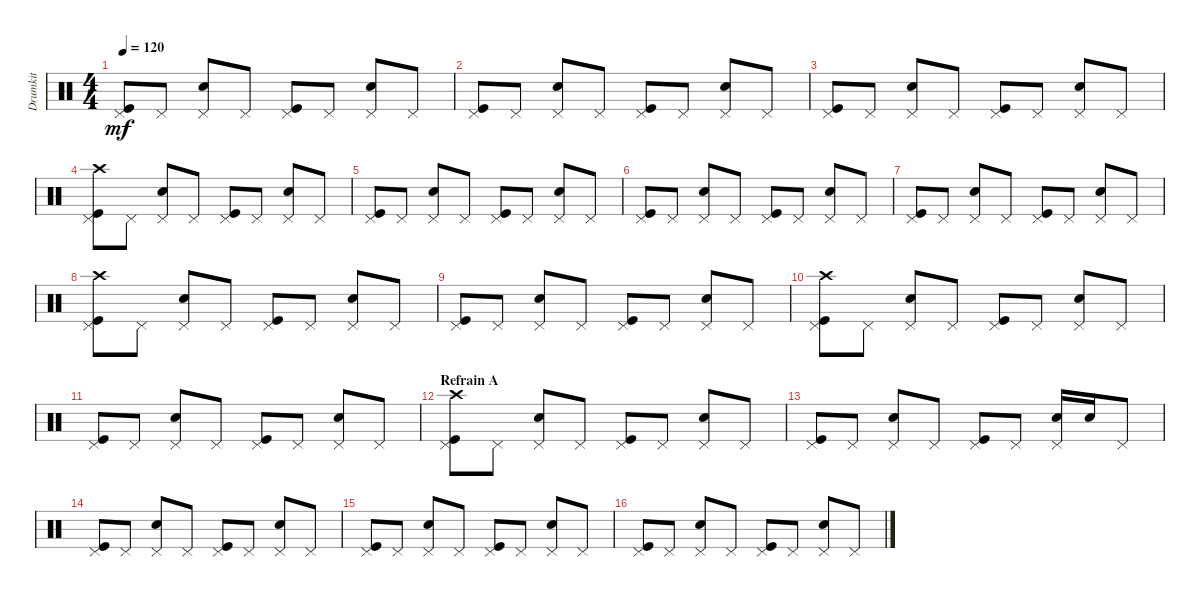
\track ("Drumkit" "Drumkit") {instrument percussion}
\staff {score}
\articulation defaults
\ts (4 4)
\tempo 120
\clef neutral
\ks c
("Kick (hit)" "Pedal Hi-Hat (hit)").8{dy mf} "Pedal Hi-Hat (hit)".8 ("Pedal Hi-Hat (hit)" "Snare (hit) 2").8 "Pedal Hi-Hat (hit)".8 ("Kick (hit)" "Pedal Hi-Hat (hit)").8 "Pedal Hi-Hat (hit)".8 ("Pedal Hi-Hat (hit)" "Snare (hit) 2").8 "Pedal Hi-Hat (hit)".8 |
("Kick (hit)" "Pedal Hi-Hat (hit)").8 "Pedal Hi-Hat (hit)".8 ("Pedal Hi-Hat (hit)" "Snare (hit) 2").8 "Pedal Hi-Hat (hit)".8 ("Kick (hit)" "Pedal Hi-Hat (hit)").8 "Pedal Hi-Hat (hit)".8 ("Pedal Hi-Hat (hit)" "Snare (hit) 2").8 "Pedal Hi-Hat (hit)".8 |
("Kick (hit)" "Pedal Hi-Hat (hit)").8 "Pedal Hi-Hat (hit)".8 ("Pedal Hi-Hat (hit)" "Snare (hit) 2").8 "Pedal Hi-Hat (hit)".8 ("Kick (hit)" "Pedal Hi-Hat (hit)").8 "Pedal Hi-Hat (hit)".8 ("Pedal Hi-Hat (hit)" "Snare (hit) 2").8 "Pedal Hi-Hat (hit)".8 |
("Kick (hit)" "Crash high (hit)" "Pedal Hi-Hat (hit)").8 "Pedal Hi-Hat (hit)".8 ("Pedal Hi-Hat (hit)" "Snare (hit) 2").8 "Pedal Hi-Hat (hit)".8 ("Kick (hit)" "Pedal Hi-Hat (hit)").8 "Pedal Hi-Hat (hit)".8 ("Pedal Hi-Hat (hit)" "Snare (hit) 2").8 "Pedal Hi-Hat (hit)".8 |
("Kick (hit)" "Pedal Hi-Hat (hit)").8 "Pedal Hi-Hat (hit)".8 ("Pedal Hi-Hat (hit)" "Snare (hit) 2").8 "Pedal Hi-Hat (hit)".8 ("Kick (hit)" "Pedal Hi-Hat (hit)").8 "Pedal Hi-Hat (hit)".8 ("Pedal Hi-Hat (hit)" "Snare (hit) 2").8 "Pedal Hi-Hat (hit)".8 |
("Kick (hit)" "Pedal Hi-Hat (hit)").8 "Pedal Hi-Hat (hit)".8 ("Pedal Hi-Hat (hit)" "Snare (hit) 2").8 "Pedal Hi-Hat (hit)".8 ("Kick (hit)" "Pedal Hi-Hat (hit)").8 "Pedal Hi-Hat (hit)".8 ("Pedal Hi-Hat (hit)" "Snare (hit) 2").8 "Pedal Hi-Hat (hit)".8 |
("Kick (hit)" "Pedal Hi-Hat (hit)").8 "Pedal Hi-Hat (hit)".8 ("Pedal Hi-Hat (hit)" "Snare (hit) 2").8 "Pedal Hi-Hat (hit)".8 ("Kick (hit)" "Pedal Hi-Hat (hit)").8 "Pedal Hi-Hat (hit)".8 ("Pedal Hi-Hat (hit)" "Snare (hit) 2").8 "Pedal Hi-Hat (hit)".8 |
("Kick (hit)" "Crash high (hit)" "Pedal Hi-Hat (hit)").8 "Pedal Hi-Hat (hit)".8 ("Pedal Hi-Hat (hit)" "Snare (hit) 2").8 "Pedal Hi-Hat (hit)".8 ("Kick (hit)" "Pedal Hi-Hat (hit)").8 "Pedal Hi-Hat (hit)".8 ("Pedal Hi-Hat (hit)" "Snare (hit) 2").8 "Pedal Hi-Hat (hit)".8 |
("Kick (hit)" "Pedal Hi-Hat (hit)").8 "Pedal Hi-Hat (hit)".8 ("Pedal Hi-Hat (hit)" "Snare (hit) 2").8 "Pedal Hi-Hat (hit)".8 ("Kick (hit)" "Pedal Hi-Hat (hit)").8 "Pedal Hi-Hat (hit)".8 ("Pedal Hi-Hat (hit)" "Snare (hit) 2").8 "Pedal Hi-Hat (hit)".8 |
("Kick (hit)" "Crash high (hit)" "Pedal Hi-Hat (hit)").8 "Pedal Hi-Hat (hit)".8 ("Pedal Hi-Hat (hit)" "Snare (hit) 2").8 "Pedal Hi-Hat (hit)".8 ("Kick (hit)" "Pedal Hi-Hat (hit)").8 "Pedal Hi-Hat (hit)".8 ("Pedal Hi-Hat (hit)" "Snare (hit) 2").8 "Pedal Hi-Hat (hit)".8 |
("Kick (hit)" "Pedal Hi-Hat (hit)").8 "Pedal Hi-Hat (hit)".8 ("Pedal Hi-Hat (hit)" "Snare (hit) 2").8 "Pedal Hi-Hat (hit)".8 ("Kick (hit)" "Pedal Hi-Hat (hit)").8 "Pedal Hi-Hat (hit)".8 ("Pedal Hi-Hat (hit)" "Snare (hit) 2").8 "Pedal Hi-Hat (hit)".8 |
\section ("" "Refrain A")
("Kick (hit)" "Pedal Hi-Hat (hit)" "Crash high (hit)").8 "Pedal Hi-Hat (hit)".8 ("Pedal Hi-Hat (hit)" "Snare (hit) 2").8 "Pedal Hi-Hat (hit)".8 ("Kick (hit)" "Pedal Hi-Hat (hit)").8 "Pedal Hi-Hat (hit)".8 ("Pedal Hi-Hat (hit)" "Snare (hit) 2").8 "Pedal Hi-Hat (hit)".8 |
("Kick (hit)" "Pedal Hi-Hat (hit)").8 "Pedal Hi-Hat (hit)".8 ("Pedal Hi-Hat (hit)" "Snare (hit) 2").8 "Pedal Hi-Hat (hit)".8 ("Kick (hit)" "Pedal Hi-Hat (hit)").8 "Pedal Hi-Hat (hit)".8 ("Pedal Hi-Hat (hit)" "Snare (hit) 2").16 "Snare (hit) 2".16 "Pedal Hi-Hat (hit)".8 |
("Kick (hit)" "Pedal Hi-Hat (hit)").8 "Pedal Hi-Hat (hit)".8 ("Pedal Hi-Hat (hit)" "Snare (hit) 2").8 "Pedal Hi-Hat (hit)".8 ("Kick (hit)" "Pedal Hi-Hat (hit)").8 "Pedal Hi-Hat (hit)".8 ("Pedal Hi-Hat (hit)" "Snare (hit) 2").8 "Pedal Hi-Hat (hit)".8 |
("Kick (hit)" "Pedal Hi-Hat (hit)").8 "Pedal Hi-Hat (hit)".8 ("Pedal Hi-Hat (hit)" "Snare (hit) 2").8 "Pedal Hi-Hat (hit)".8 ("Kick (hit)" "Pedal Hi-Hat (hit)").8 "Pedal Hi-Hat (hit)".8 ("Pedal Hi-Hat (hit)" "Snare (hit) 2").8 "Pedal Hi-Hat (hit)".8 |
("Kick (hit)" "Pedal Hi-Hat (hit)").8 "Pedal Hi-Hat (hit)".8 ("Pedal Hi-Hat (hit)" "Snare (hit) 2").8 "Pedal Hi-Hat (hit)".8 ("Kick (hit)" "Pedal Hi-Hat (hit)").8 "Pedal Hi-Hat (hit)".8 ("Pedal Hi-Hat (hit)" "Snare (hit) 2").8 "Pedal Hi-Hat (hit)".8
